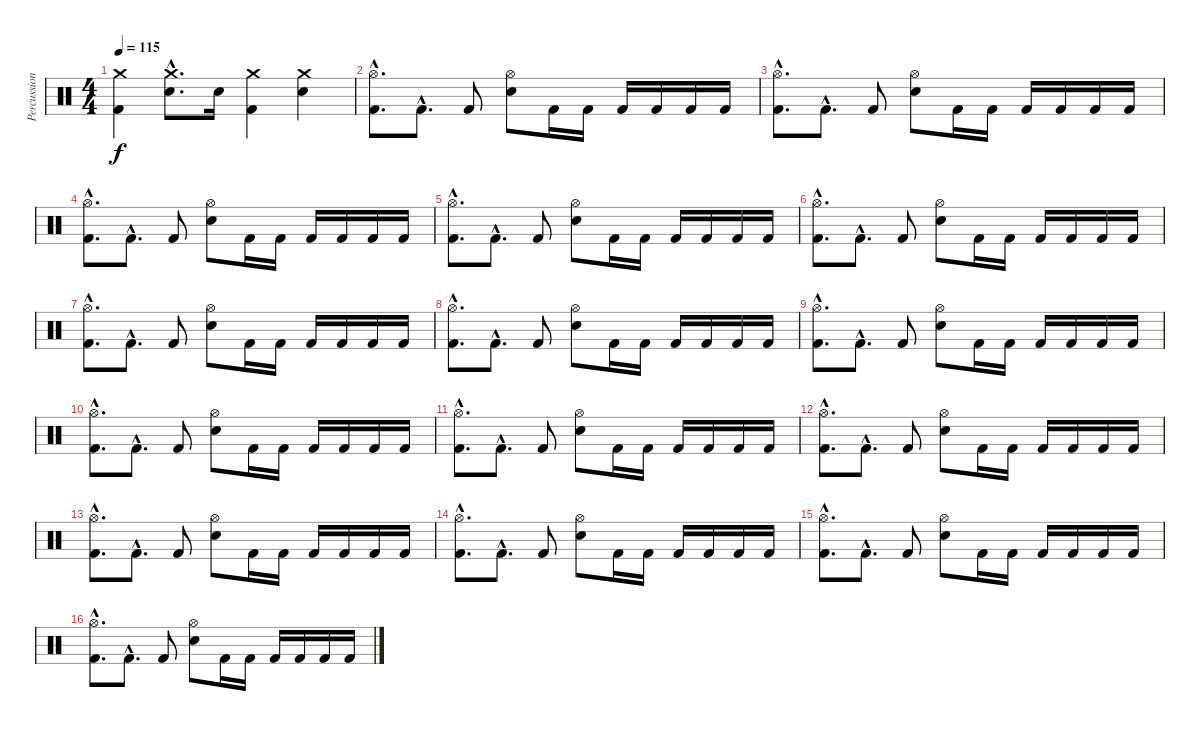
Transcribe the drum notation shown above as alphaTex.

\track ("Percussions" "Percussion") {instrument percussion}
\staff {score}
\articulation defaults
\ts (4 4)
\tempo 115
\clef neutral
\ks c
("Crash medium (hit)" "Kick (hit) 2").4{dy f} ("Crash medium (hit)"{hac} "Electric Snare (hit)"{hac}).8{d} "Electric Snare (hit)".16 ("Crash medium (hit)" "Kick (hit) 2").4 ("Crash medium (hit)" "Electric Snare (hit)").4 |
("Kick (hit) 2"{hac} "Hi-Hat (open)"{hac}).8{d} "Kick (hit) 2"{hac}.8{d} "Kick (hit) 2".8 ("Electric Snare (hit)" "Hi-Hat (open)").8 "Kick (hit) 2".16 "Kick (hit) 2".16 "Kick (hit) 2".16 "Kick (hit) 2".16 "Kick (hit) 2".16 "Kick (hit) 2".16 |
("Kick (hit) 2"{hac} "Hi-Hat (open)"{hac}).8{d} "Kick (hit) 2"{hac}.8{d} "Kick (hit) 2".8 ("Electric Snare (hit)" "Hi-Hat (open)").8 "Kick (hit) 2".16 "Kick (hit) 2".16 "Kick (hit) 2".16 "Kick (hit) 2".16 "Kick (hit) 2".16 "Kick (hit) 2".16 |
("Kick (hit) 2"{hac} "Hi-Hat (open)"{hac}).8{d} "Kick (hit) 2"{hac}.8{d} "Kick (hit) 2".8 ("Electric Snare (hit)" "Hi-Hat (open)").8 "Kick (hit) 2".16 "Kick (hit) 2".16 "Kick (hit) 2".16 "Kick (hit) 2".16 "Kick (hit) 2".16 "Kick (hit) 2".16 |
("Kick (hit) 2"{hac} "Hi-Hat (open)"{hac}).8{d} "Kick (hit) 2"{hac}.8{d} "Kick (hit) 2".8 ("Electric Snare (hit)" "Hi-Hat (open)").8 "Kick (hit) 2".16 "Kick (hit) 2".16 "Kick (hit) 2".16 "Kick (hit) 2".16 "Kick (hit) 2".16 "Kick (hit) 2".16 |
("Kick (hit) 2"{hac} "Hi-Hat (open)"{hac}).8{d} "Kick (hit) 2"{hac}.8{d} "Kick (hit) 2".8 ("Electric Snare (hit)" "Hi-Hat (open)").8 "Kick (hit) 2".16 "Kick (hit) 2".16 "Kick (hit) 2".16 "Kick (hit) 2".16 "Kick (hit) 2".16 "Kick (hit) 2".16 |
("Kick (hit) 2"{hac} "Hi-Hat (open)"{hac}).8{d} "Kick (hit) 2"{hac}.8{d} "Kick (hit) 2".8 ("Electric Snare (hit)" "Hi-Hat (open)").8 "Kick (hit) 2".16 "Kick (hit) 2".16 "Kick (hit) 2".16 "Kick (hit) 2".16 "Kick (hit) 2".16 "Kick (hit) 2".16 |
("Kick (hit) 2"{hac} "Hi-Hat (open)"{hac}).8{d} "Kick (hit) 2"{hac}.8{d} "Kick (hit) 2".8 ("Electric Snare (hit)" "Hi-Hat (open)").8 "Kick (hit) 2".16 "Kick (hit) 2".16 "Kick (hit) 2".16 "Kick (hit) 2".16 "Kick (hit) 2".16 "Kick (hit) 2".16 |
("Kick (hit) 2"{hac} "Hi-Hat (open)"{hac}).8{d} "Kick (hit) 2"{hac}.8{d} "Kick (hit) 2".8 ("Electric Snare (hit)" "Hi-Hat (open)").8 "Kick (hit) 2".16 "Kick (hit) 2".16 "Kick (hit) 2".16 "Kick (hit) 2".16 "Kick (hit) 2".16 "Kick (hit) 2".16 |
("Kick (hit) 2"{hac} "Hi-Hat (open)"{hac}).8{d} "Kick (hit) 2"{hac}.8{d} "Kick (hit) 2".8 ("Electric Snare (hit)" "Hi-Hat (open)").8 "Kick (hit) 2".16 "Kick (hit) 2".16 "Kick (hit) 2".16 "Kick (hit) 2".16 "Kick (hit) 2".16 "Kick (hit) 2".16 |
("Kick (hit) 2"{hac} "Hi-Hat (open)"{hac}).8{d} "Kick (hit) 2"{hac}.8{d} "Kick (hit) 2".8 ("Electric Snare (hit)" "Hi-Hat (open)").8 "Kick (hit) 2".16 "Kick (hit) 2".16 "Kick (hit) 2".16 "Kick (hit) 2".16 "Kick (hit) 2".16 "Kick (hit) 2".16 |
("Kick (hit) 2"{hac} "Hi-Hat (open)"{hac}).8{d} "Kick (hit) 2"{hac}.8{d} "Kick (hit) 2".8 ("Electric Snare (hit)" "Hi-Hat (open)").8 "Kick (hit) 2".16 "Kick (hit) 2".16 "Kick (hit) 2".16 "Kick (hit) 2".16 "Kick (hit) 2".16 "Kick (hit) 2".16 |
("Kick (hit) 2"{hac} "Hi-Hat (open)"{hac}).8{d} "Kick (hit) 2"{hac}.8{d} "Kick (hit) 2".8 ("Electric Snare (hit)" "Hi-Hat (open)").8 "Kick (hit) 2".16 "Kick (hit) 2".16 "Kick (hit) 2".16 "Kick (hit) 2".16 "Kick (hit) 2".16 "Kick (hit) 2".16 |
("Kick (hit) 2"{hac} "Hi-Hat (open)"{hac}).8{d} "Kick (hit) 2"{hac}.8{d} "Kick (hit) 2".8 ("Electric Snare (hit)" "Hi-Hat (open)").8 "Kick (hit) 2".16 "Kick (hit) 2".16 "Kick (hit) 2".16 "Kick (hit) 2".16 "Kick (hit) 2".16 "Kick (hit) 2".16 |
("Kick (hit) 2"{hac} "Hi-Hat (open)"{hac}).8{d} "Kick (hit) 2"{hac}.8{d} "Kick (hit) 2".8 ("Electric Snare (hit)" "Hi-Hat (open)").8 "Kick (hit) 2".16 "Kick (hit) 2".16 "Kick (hit) 2".16 "Kick (hit) 2".16 "Kick (hit) 2".16 "Kick (hit) 2".16 |
("Kick (hit) 2"{hac} "Hi-Hat (open)"{hac}).8{d} "Kick (hit) 2"{hac}.8{d} "Kick (hit) 2".8 ("Electric Snare (hit)" "Hi-Hat (open)").8 "Kick (hit) 2".16 "Kick (hit) 2".16 "Kick (hit) 2".16 "Kick (hit) 2".16 "Kick (hit) 2".16 "Kick (hit) 2".16
